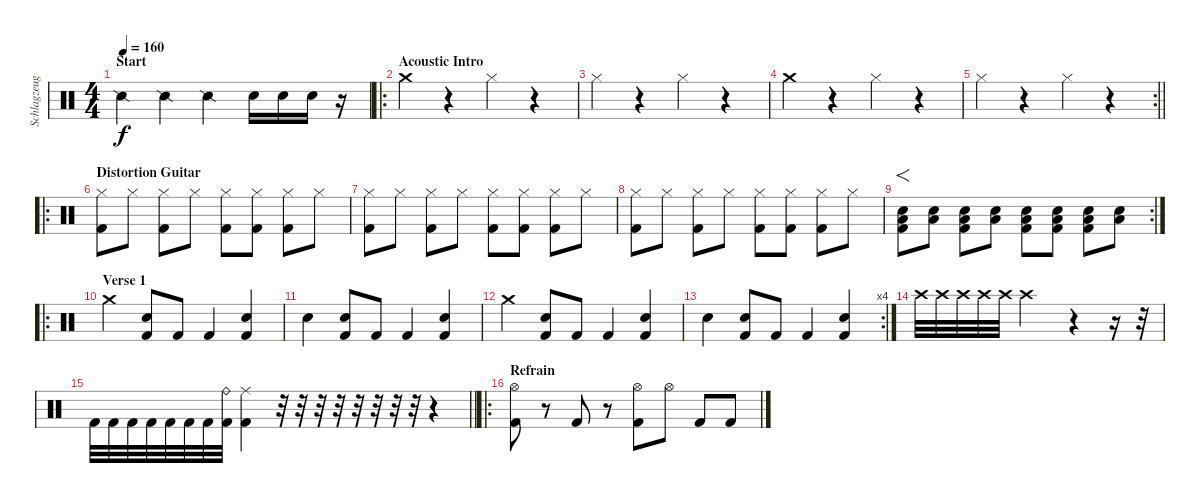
\track ("Schlagzeug" "Schlagzeug") {instrument percussion}
\staff {score}
\articulation defaults
\ts (4 4)
\section ("" "Start")
\tempo 160
\clef neutral
\ks c "Snare (side stick) 2".4{dy f} "Snare (side stick) 2".4 "Snare (side stick) 2".4 "Electric Snare (hit)".16 "Electric Snare (hit)".16 "Electric Snare (hit)".16
r.16 |
\ro
\section ("" "Acoustic Intro")
"Crash medium (hit)".4 r.4 "Hi-Hat (closed)".4 r.4 |
"Hi-Hat (closed)".4 r.4 "Hi-Hat (closed)".4 r.4 |
"Crash medium (hit)".4 r.4 "Hi-Hat (closed)".4 r.4 |
\rc 2
\barLineRight lightlight "Hi-Hat (closed)".4
r.4 "Hi-Hat (closed)".4 r.4 |
\ro
\section ("" "Distortion Guitar")
("Hi-Hat (closed)" "Kick (hit) 2").8 "Hi-Hat (closed)".8 ("Hi-Hat (closed)" "Kick (hit) 2").8 "Hi-Hat (closed)".8 ("Hi-Hat (closed)" "Kick (hit) 2").8 ("Hi-Hat (closed)" "Kick (hit) 2").8 ("Hi-Hat (closed)" "Kick (hit) 2").8 "Hi-Hat (closed)".8 |
("Hi-Hat (closed)" "Kick (hit) 2").8 "Hi-Hat (closed)".8 ("Hi-Hat (closed)" "Kick (hit) 2").8 "Hi-Hat (closed)".8 ("Hi-Hat (closed)" "Kick (hit) 2").8 ("Hi-Hat (closed)" "Kick (hit) 2").8 ("Hi-Hat (closed)" "Kick (hit) 2").8 "Hi-Hat (closed)".8 |
("Hi-Hat (closed)" "Kick (hit) 2").8 "Hi-Hat (closed)".8 ("Hi-Hat (closed)" "Kick (hit) 2").8 "Hi-Hat (closed)".8 ("Hi-Hat (closed)" "Kick (hit) 2").8 ("Hi-Hat (closed)" "Kick (hit) 2").8 ("Hi-Hat (closed)" "Kick (hit) 2").8 "Hi-Hat (closed)".8 |
\rc 2
("Electric Snare (hit)" "Low Tom (hit)" "Kick (hit) 2").8{f} ("Electric Snare (hit)" "Low Tom (hit)").8 ("Electric Snare (hit)" "Low Tom (hit)" "Kick (hit) 2").8 ("Electric Snare (hit)" "Low Tom (hit)").8 ("Electric Snare (hit)" "Low Tom (hit)" "Kick (hit) 2").8 ("Electric Snare (hit)" "Low Tom (hit)" "Kick (hit) 2").8 ("Electric Snare (hit)" "Low Tom (hit)" "Kick (hit) 2").8 ("Electric Snare (hit)" "Low Tom (hit)").8 |
\ro
\section ("" "Verse 1")
"Crash medium (hit)".4 ("Electric Snare (hit)" "Kick (hit) 2").8 "Kick (hit) 2".8 "Kick (hit) 2".4 ("Electric Snare (hit)" "Kick (hit) 2").4 |
"Electric Snare (hit)".4 ("Electric Snare (hit)" "Kick (hit) 2").8 "Kick (hit) 2".8 "Kick (hit) 2".4 ("Electric Snare (hit)" "Kick (hit) 2").4 |
"Crash medium (hit)".4 ("Electric Snare (hit)" "Kick (hit) 2").8 "Kick (hit) 2".8 "Kick (hit) 2".4 ("Electric Snare (hit)" "Kick (hit) 2").4 |
\rc 4 "Electric Snare (hit)".4
("Electric Snare (hit)" "Kick (hit) 2").8 "Kick (hit) 2".8 "Kick (hit) 2".4 ("Electric Snare (hit)" "Kick (hit) 2").4 |
"Crash high (hit)".32 "Crash high (hit)".32 "Crash high (hit)".32 "Crash high (hit)".32 "Crash high (hit)".32 "Crash high (hit)".2 r.4 r.16 r.32 |
\barLineRight lightlight "Kick (hit) 2".32 "Kick (hit) 2".32 "Kick (hit) 2".32 "Kick (hit) 2".32 "Kick (hit) 2".32 "Kick (hit) 2".32 "Kick (hit) 2".32
("Ride (bell)" "Kick (hit) 2").32 ("Ride (middle)" "Kick (hit) 2").4 r.32 r.32 r.32 r.32 r.32 r.32 r.32 r.32 r.4 |
\ro
\section ("" "Refrain")
("Hi-Hat (open)" "Kick (hit) 2").8 r.8 "Kick (hit) 2".8 r.8 ("Hi-Hat (open)" "Kick (hit) 2").8 "Hi-Hat (open)".8 "Kick (hit) 2".8 "Kick (hit) 2".8
